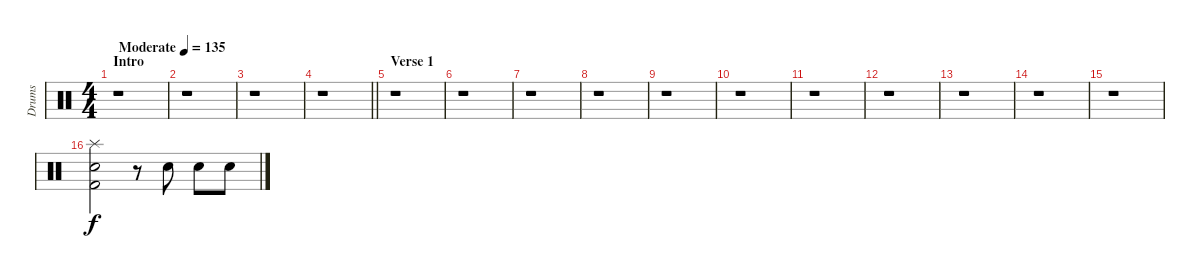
\track ("Drums" "Drums") {instrument percussion}
\staff {score}
\articulation defaults
\ts (4 4)
\section ("" "Intro")
\tempo (135 "Moderate")
\clef neutral
\ks c
r.1{dy f} |
r.1 |
r.1 |
\barLineRight lightlight
r.1 |
\section ("" "Verse 1")
r.1 |
r.1 |
r.1 |
r.1 |
r.1 |
r.1 |
r.1 |
r.1 |
r.1 |
r.1 |
r.1 |
("Splash (hit)" "Kick (hit) 2" "Snare (hit) 2").2 r.8 "Snare (hit) 2".8 "Snare (hit) 2".8 "Snare (hit) 2".8
